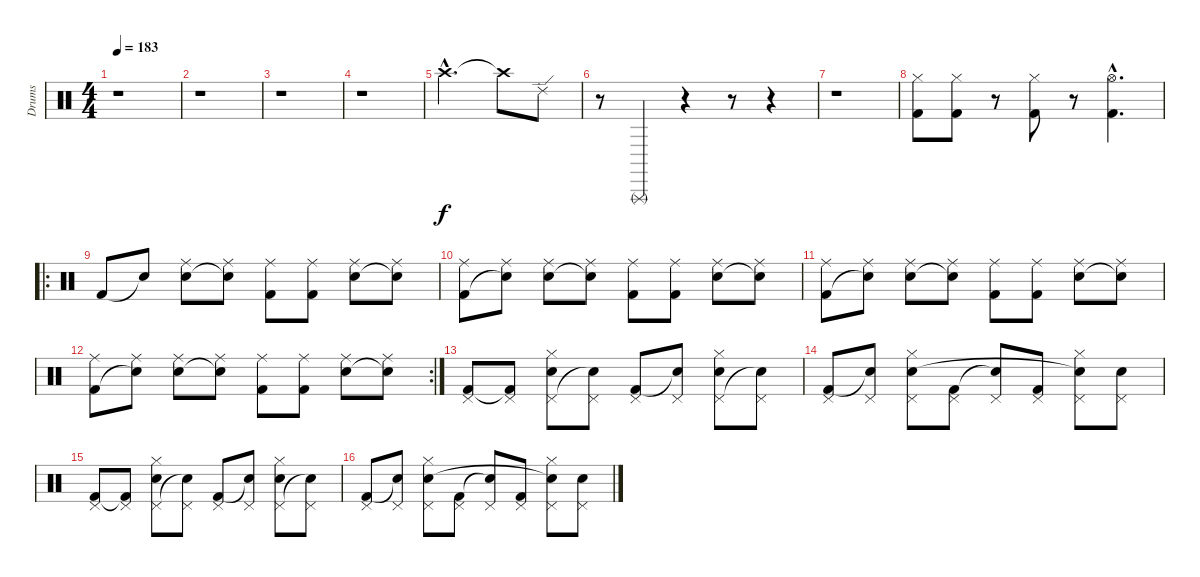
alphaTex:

\track ("Drums" "Drums") {instrument percussion}
\staff {score}
\articulation defaults
\ts (4 4)
\tempo 183
\clef neutral
\ks c
r.1{dy f} |
r.1 |
r.1 |
r.1 |
"Crash high (hit)"{hac}.2{d} "Crash high (hit)"{t}.8 "Ride (edge) 2".8 |
r.8 "Triangle (rnute)".4 r.4 r.8 r.4 |
r.1 |
("Hi-Hat (closed)" "Kick (hit) 2").8 ("Hi-Hat (closed)" "Kick (hit) 2").8 r.8 ("Hi-Hat (closed)" "Kick (hit) 2").8 r.8 ("Hi-Hat (open)"{hac} "Kick (hit) 2"{hac}).4{d} |
\ro "Kick (hit) 2".8 "Snare (hit)"{t}.8
("Ride (middle)" "Snare (hit) 2").8 ("Ride (middle)" "Snare (hit)"{t}).8 ("Ride (middle)" "Kick (hit) 2").8 ("Ride (middle)" "Kick (hit) 2").8 ("Ride (middle)" "Snare (hit) 2").8 ("Ride (middle)" "Snare (hit) 2"{t}).8 |
("Ride (middle)" "Kick (hit) 2").8 ("Ride (middle)" "Snare (hit)"{t}).8 ("Ride (middle)" "Snare (hit) 2").8 ("Ride (middle)" "Snare (hit)"{t}).8 ("Ride (middle)" "Kick (hit) 2").8 ("Ride (middle)" "Kick (hit) 2").8 ("Ride (middle)" "Snare (hit) 2").8 ("Ride (middle)" "Snare (hit) 2"{t}).8 |
("Ride (middle)" "Kick (hit) 2").8 ("Ride (middle)" "Snare (hit)"{t}).8 ("Ride (middle)" "Snare (hit) 2").8 ("Ride (middle)" "Snare (hit)"{t}).8 ("Ride (middle)" "Kick (hit) 2").8 ("Ride (middle)" "Kick (hit) 2").8 ("Ride (middle)" "Snare (hit) 2").8 ("Ride (middle)" "Snare (hit) 2"{t}).8 |
\rc 2
("Ride (middle)" "Kick (hit) 2").8 ("Ride (middle)" "Snare (hit)"{t}).8 ("Ride (middle)" "Snare (hit) 2").8 ("Ride (middle)" "Snare (hit)"{t}).8 ("Ride (middle)" "Kick (hit) 2").8 ("Ride (middle)" "Kick (hit) 2").8 ("Ride (middle)" "Snare (hit) 2").8 ("Ride (middle)" "Snare (hit) 2"{t}).8 |
("Pedal Hi-Hat (hit)" "Kick (hit) 2").8 ("Pedal Hi-Hat (hit)" "Kick (hit) 2"{t}).8 ("Hi-Hat (closed)" "Pedal Hi-Hat (hit)" "Snare (hit) 2").8 ("Pedal Hi-Hat (hit)" "Snare (hit)"{t}).8 ("Pedal Hi-Hat (hit)" "Kick (hit) 2").8 ("Pedal Hi-Hat (hit)" "Snare (hit)"{t}).8 ("Hi-Hat (closed)" "Pedal Hi-Hat (hit)" "Snare (hit) 2").8 ("Pedal Hi-Hat (hit)" "Snare (hit)"{t}).8 |
("Pedal Hi-Hat (hit)" "Kick (hit) 2").8 ("Pedal Hi-Hat (hit)" "Snare (hit)"{t}).8 ("Hi-Hat (closed)" "Pedal Hi-Hat (hit)" "Snare (hit) 2").8 ("Pedal Hi-Hat (hit)" "Kick (hit) 2").8 ("Pedal Hi-Hat (hit)" "Snare (hit)"{t}).8 ("Pedal Hi-Hat (hit)" "Kick (hit) 2").8 ("Hi-Hat (closed)" "Pedal Hi-Hat (hit)" "Snare (hit)"{t}).8 ("Pedal Hi-Hat (hit)" "Snare (hit) 2").8 |
("Pedal Hi-Hat (hit)" "Kick (hit) 2").8 ("Pedal Hi-Hat (hit)" "Kick (hit) 2"{t}).8 ("Hi-Hat (closed)" "Pedal Hi-Hat (hit)" "Snare (hit) 2").8 ("Pedal Hi-Hat (hit)" "Snare (hit)"{t}).8 ("Pedal Hi-Hat (hit)" "Kick (hit) 2").8 ("Pedal Hi-Hat (hit)" "Snare (hit)"{t}).8 ("Hi-Hat (closed)" "Pedal Hi-Hat (hit)" "Snare (hit) 2").8 ("Pedal Hi-Hat (hit)" "Snare (hit)"{t}).8 |
("Pedal Hi-Hat (hit)" "Kick (hit) 2").8 ("Pedal Hi-Hat (hit)" "Snare (hit)"{t}).8 ("Hi-Hat (closed)" "Pedal Hi-Hat (hit)" "Snare (hit) 2").8 ("Pedal Hi-Hat (hit)" "Kick (hit) 2").8 ("Pedal Hi-Hat (hit)" "Snare (hit)"{t}).8 ("Pedal Hi-Hat (hit)" "Kick (hit) 2").8 ("Hi-Hat (closed)" "Pedal Hi-Hat (hit)" "Snare (hit)"{t}).8 ("Pedal Hi-Hat (hit)" "Snare (hit) 2").8
